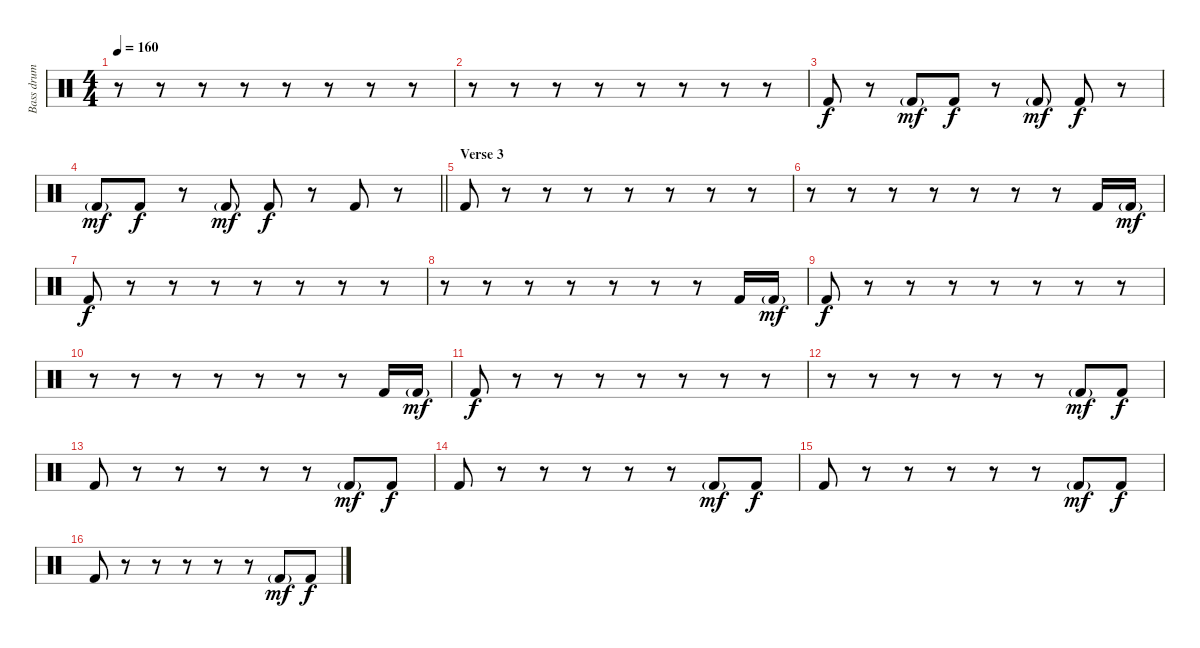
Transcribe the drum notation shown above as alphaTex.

\track ("Bass drum" "Bass drum") {instrument percussion}
\staff {score}
\articulation defaults
\ts (4 4)
\tempo 160
\clef neutral
\ks c
r.8{dy f} r.8 r.8 r.8 r.8 r.8 r.8 r.8 |
r.8 r.8 r.8 r.8 r.8 r.8 r.8 r.8 |
"Kick (hit) 2".8 r.8 "Kick (hit) 2"{g}.8{dy mf} "Kick (hit) 2".8{dy f} r.8 "Kick (hit) 2"{g}.8{dy mf} "Kick (hit) 2".8{dy f} r.8 |
\barLineRight lightlight "Kick (hit) 2"{g}.8{dy mf} "Kick (hit) 2".8{dy f}
r.8 "Kick (hit) 2"{g}.8{dy mf} "Kick (hit) 2".8{dy f} r.8 "Kick (hit) 2".8 r.8 |
\section ("" "Verse 3")
"Kick (hit) 2".8 r.8 r.8 r.8 r.8 r.8 r.8 r.8 |
r.8 r.8 r.8 r.8 r.8 r.8 r.8 "Kick (hit) 2".16 "Kick (hit) 2"{g}.16{dy mf} |
"Kick (hit) 2".8{dy f} r.8 r.8 r.8 r.8 r.8 r.8 r.8 |
r.8 r.8 r.8 r.8 r.8 r.8 r.8 "Kick (hit) 2".16 "Kick (hit) 2"{g}.16{dy mf} |
"Kick (hit) 2".8{dy f} r.8 r.8 r.8 r.8 r.8 r.8 r.8 |
r.8 r.8 r.8 r.8 r.8 r.8 r.8 "Kick (hit) 2".16 "Kick (hit) 2"{g}.16{dy mf} |
"Kick (hit) 2".8{dy f} r.8 r.8 r.8 r.8 r.8 r.8 r.8 |
r.8 r.8 r.8 r.8 r.8 r.8 "Kick (hit) 2"{g}.8{dy mf} "Kick (hit) 2".8{dy f} |
"Kick (hit) 2".8 r.8 r.8 r.8 r.8 r.8 "Kick (hit) 2"{g}.8{dy mf} "Kick (hit) 2".8{dy f} |
"Kick (hit) 2".8 r.8 r.8 r.8 r.8 r.8 "Kick (hit) 2"{g}.8{dy mf} "Kick (hit) 2".8{dy f} |
"Kick (hit) 2".8 r.8 r.8 r.8 r.8 r.8 "Kick (hit) 2"{g}.8{dy mf} "Kick (hit) 2".8{dy f} |
"Kick (hit) 2".8 r.8 r.8 r.8 r.8 r.8 "Kick (hit) 2"{g}.8{dy mf} "Kick (hit) 2".8{dy f}
